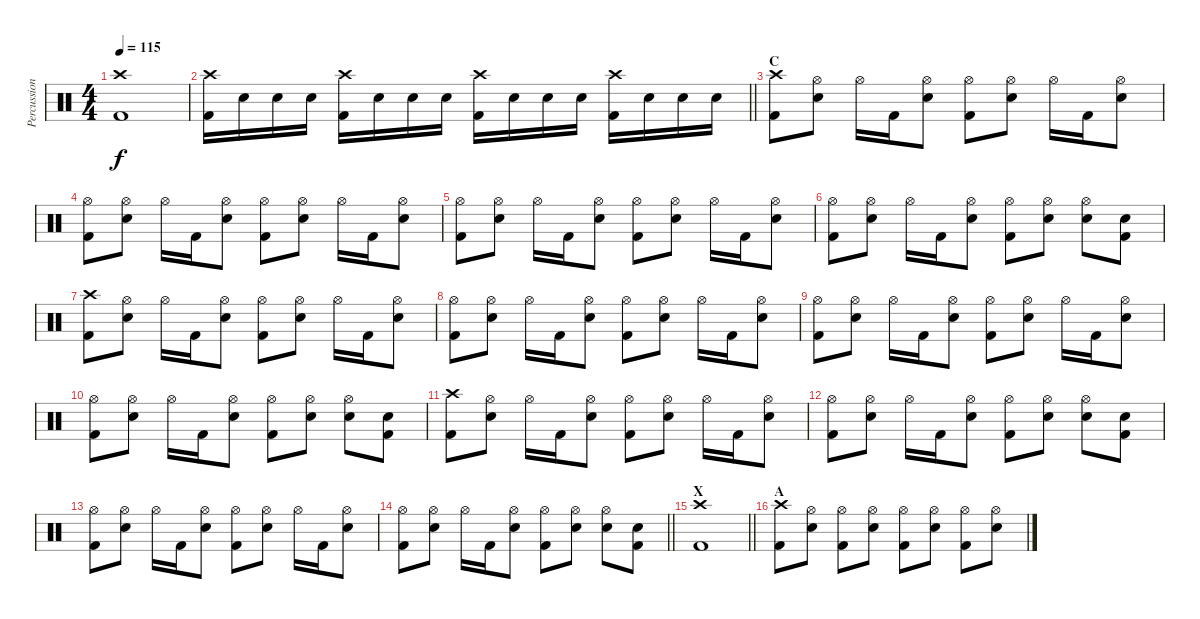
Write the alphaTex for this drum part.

\track ("Percussion" "Percussion") {instrument percussion}
\staff {score}
\articulation defaults
\ts (4 4)
\section ("" "")
\tempo 115
\clef neutral
\ks c
("Crash high (hit)" "Kick (hit) 2").1{dy f} |
\barLineRight lightlight
("Crash high (hit)" "Kick (hit) 2").16 "Snare (hit) 2".16 "Snare (hit) 2".16 "Snare (hit) 2".16 ("Crash high (hit)" "Kick (hit) 2").16 "Snare (hit) 2".16 "Snare (hit) 2".16 "Snare (hit) 2".16 ("Crash high (hit)" "Kick (hit) 2").16 "Snare (hit) 2".16 "Snare (hit) 2".16 "Snare (hit) 2".16 ("Crash high (hit)" "Kick (hit) 2").16 "Snare (hit) 2".16 "Snare (hit) 2".16 "Snare (hit) 2".16 |
\section ("" "C")
("Crash high (hit)" "Kick (hit) 2").8 ("Hi-Hat (open)" "Snare (hit) 2").8 "Hi-Hat (open)".16 "Kick (hit) 2".16 ("Hi-Hat (open)" "Snare (hit) 2").8 ("Hi-Hat (open)" "Kick (hit) 2").8 ("Hi-Hat (open)" "Snare (hit) 2").8 "Hi-Hat (open)".16 "Kick (hit) 2".16 ("Hi-Hat (open)" "Snare (hit) 2").8 |
("Hi-Hat (open)" "Kick (hit) 2").8 ("Hi-Hat (open)" "Snare (hit) 2").8 "Hi-Hat (open)".16 "Kick (hit) 2".16 ("Hi-Hat (open)" "Snare (hit) 2").8 ("Hi-Hat (open)" "Kick (hit) 2").8 ("Hi-Hat (open)" "Snare (hit) 2").8 "Hi-Hat (open)".16 "Kick (hit) 2".16 ("Hi-Hat (open)" "Snare (hit) 2").8 |
("Hi-Hat (open)" "Kick (hit) 2").8 ("Hi-Hat (open)" "Snare (hit) 2").8 "Hi-Hat (open)".16 "Kick (hit) 2".16 ("Hi-Hat (open)" "Snare (hit) 2").8 ("Hi-Hat (open)" "Kick (hit) 2").8 ("Hi-Hat (open)" "Snare (hit) 2").8 "Hi-Hat (open)".16 "Kick (hit) 2".16 ("Hi-Hat (open)" "Snare (hit) 2").8 |
("Hi-Hat (open)" "Kick (hit) 2").8 ("Hi-Hat (open)" "Snare (hit) 2").8 "Hi-Hat (open)".16 "Kick (hit) 2".16 ("Hi-Hat (open)" "Snare (hit) 2").8 ("Hi-Hat (open)" "Kick (hit) 2").8 ("Hi-Hat (open)" "Snare (hit) 2").8 ("Hi-Hat (open)" "Snare (hit) 2").8 ("Snare (hit) 2" "Kick (hit) 2").8 |
("Crash high (hit)" "Kick (hit) 2").8 ("Hi-Hat (open)" "Snare (hit) 2").8 "Hi-Hat (open)".16 "Kick (hit) 2".16 ("Hi-Hat (open)" "Snare (hit) 2").8 ("Hi-Hat (open)" "Kick (hit) 2").8 ("Hi-Hat (open)" "Snare (hit) 2").8 "Hi-Hat (open)".16 "Kick (hit) 2".16 ("Hi-Hat (open)" "Snare (hit) 2").8 |
("Hi-Hat (open)" "Kick (hit) 2").8 ("Hi-Hat (open)" "Snare (hit) 2").8 "Hi-Hat (open)".16 "Kick (hit) 2".16 ("Hi-Hat (open)" "Snare (hit) 2").8 ("Hi-Hat (open)" "Kick (hit) 2").8 ("Hi-Hat (open)" "Snare (hit) 2").8 "Hi-Hat (open)".16 "Kick (hit) 2".16 ("Hi-Hat (open)" "Snare (hit) 2").8 |
("Hi-Hat (open)" "Kick (hit) 2").8 ("Hi-Hat (open)" "Snare (hit) 2").8 "Hi-Hat (open)".16 "Kick (hit) 2".16 ("Hi-Hat (open)" "Snare (hit) 2").8 ("Hi-Hat (open)" "Kick (hit) 2").8 ("Hi-Hat (open)" "Snare (hit) 2").8 "Hi-Hat (open)".16 "Kick (hit) 2".16 ("Hi-Hat (open)" "Snare (hit) 2").8 |
("Hi-Hat (open)" "Kick (hit) 2").8 ("Hi-Hat (open)" "Snare (hit) 2").8 "Hi-Hat (open)".16 "Kick (hit) 2".16 ("Hi-Hat (open)" "Snare (hit) 2").8 ("Hi-Hat (open)" "Kick (hit) 2").8 ("Hi-Hat (open)" "Snare (hit) 2").8 ("Hi-Hat (open)" "Snare (hit) 2").8 ("Snare (hit) 2" "Kick (hit) 2").8 |
("Crash high (hit)" "Kick (hit) 2").8 ("Hi-Hat (open)" "Snare (hit) 2").8 "Hi-Hat (open)".16 "Kick (hit) 2".16 ("Hi-Hat (open)" "Snare (hit) 2").8 ("Hi-Hat (open)" "Kick (hit) 2").8 ("Hi-Hat (open)" "Snare (hit) 2").8 "Hi-Hat (open)".16 "Kick (hit) 2".16 ("Hi-Hat (open)" "Snare (hit) 2").8 |
("Hi-Hat (open)" "Kick (hit) 2").8 ("Hi-Hat (open)" "Snare (hit) 2").8 "Hi-Hat (open)".16 "Kick (hit) 2".16 ("Hi-Hat (open)" "Snare (hit) 2").8 ("Hi-Hat (open)" "Kick (hit) 2").8 ("Hi-Hat (open)" "Snare (hit) 2").8 ("Hi-Hat (open)" "Snare (hit) 2").8 ("Snare (hit) 2" "Kick (hit) 2").8 |
("Hi-Hat (open)" "Kick (hit) 2").8 ("Hi-Hat (open)" "Snare (hit) 2").8 "Hi-Hat (open)".16 "Kick (hit) 2".16 ("Hi-Hat (open)" "Snare (hit) 2").8 ("Hi-Hat (open)" "Kick (hit) 2").8 ("Hi-Hat (open)" "Snare (hit) 2").8 "Hi-Hat (open)".16 "Kick (hit) 2".16 ("Hi-Hat (open)" "Snare (hit) 2").8 |
\barLineRight lightlight
("Hi-Hat (open)" "Kick (hit) 2").8 ("Hi-Hat (open)" "Snare (hit) 2").8 "Hi-Hat (open)".16 "Kick (hit) 2".16 ("Hi-Hat (open)" "Snare (hit) 2").8 ("Hi-Hat (open)" "Kick (hit) 2").8 ("Hi-Hat (open)" "Snare (hit) 2").8 ("Hi-Hat (open)" "Snare (hit) 2").8 ("Snare (hit) 2" "Kick (hit) 2").8 |
\section ("" "X")
\barLineRight lightlight
("Crash high (hit)" "Kick (hit) 2").1 |
\section ("" "A")
("Crash high (hit)" "Kick (hit) 2").8 ("Hi-Hat (open)" "Snare (hit) 2").8 ("Hi-Hat (open)" "Kick (hit) 2").8 ("Hi-Hat (open)" "Snare (hit) 2").8 ("Hi-Hat (open)" "Kick (hit) 2").8 ("Hi-Hat (open)" "Snare (hit) 2").8 ("Hi-Hat (open)" "Kick (hit) 2").8 ("Hi-Hat (open)" "Snare (hit) 2").8
